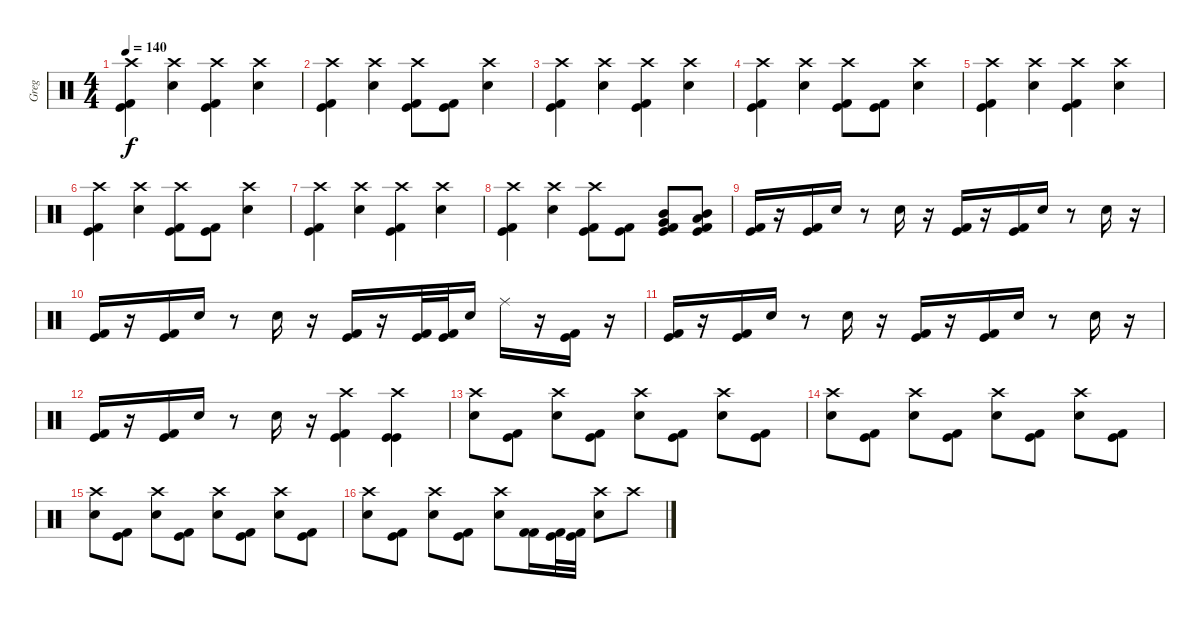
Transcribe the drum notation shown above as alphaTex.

\track ("Greg" "Greg") {instrument percussion}
\staff {score}
\articulation defaults
\ts (4 4)
\tempo 140
\clef neutral
\ks c
("Crash high (hit)" "Kick (hit)" "Kick (hit) 2").4{dy f} ("Crash high (hit)" "Snare (hit) 2").4 ("Crash high (hit)" "Kick (hit)" "Kick (hit) 2").4 ("Crash high (hit)" "Snare (hit) 2").4 |
("Crash high (hit)" "Kick (hit)" "Kick (hit) 2").4 ("Crash high (hit)" "Snare (hit) 2").4 ("Crash high (hit)" "Kick (hit)" "Kick (hit) 2").8 ("Kick (hit)" "Kick (hit) 2").8 ("Crash high (hit)" "Snare (hit) 2").4 |
("Crash high (hit)" "Kick (hit)" "Kick (hit) 2").4 ("Crash high (hit)" "Snare (hit) 2").4 ("Crash high (hit)" "Kick (hit)" "Kick (hit) 2").4 ("Crash high (hit)" "Snare (hit) 2").4 |
("Crash high (hit)" "Kick (hit)" "Kick (hit) 2").4 ("Crash high (hit)" "Snare (hit) 2").4 ("Crash high (hit)" "Kick (hit)" "Kick (hit) 2").8 ("Kick (hit)" "Kick (hit) 2").8 ("Crash high (hit)" "Snare (hit) 2").4 |
("Crash high (hit)" "Kick (hit)" "Kick (hit) 2").4 ("Crash high (hit)" "Snare (hit) 2").4 ("Crash high (hit)" "Kick (hit)" "Kick (hit) 2").4 ("Crash high (hit)" "Snare (hit) 2").4 |
("Crash high (hit)" "Kick (hit)" "Kick (hit) 2").4 ("Crash high (hit)" "Snare (hit) 2").4 ("Crash high (hit)" "Kick (hit)" "Kick (hit) 2").8 ("Kick (hit)" "Kick (hit) 2").8 ("Crash high (hit)" "Snare (hit) 2").4 |
("Crash high (hit)" "Kick (hit)" "Kick (hit) 2").4 ("Crash high (hit)" "Snare (hit) 2").4 ("Crash high (hit)" "Kick (hit)" "Kick (hit) 2").4 ("Crash high (hit)" "Snare (hit) 2").4 |
("Crash high (hit)" "Kick (hit)" "Kick (hit) 2").4 ("Crash high (hit)" "Snare (hit) 2").4 ("Crash high (hit)" "Kick (hit)" "Kick (hit) 2").8 ("Kick (hit)" "Kick (hit) 2").8 ("Very Low Tom (hit)" "Mid Tom (hit)" "Kick (hit)" "Kick (hit) 2").8 ("Low Tom (hit)" "Mid Tom (hit)" "Kick (hit)" "Kick (hit) 2").8 |
("Kick (hit)" "Kick (hit) 2").16 r.16 ("Kick (hit)" "Kick (hit) 2").16 "Snare (hit) 2".16 r.8 "Snare (hit) 2".16 r.16 ("Kick (hit)" "Kick (hit) 2").16 r.16 ("Kick (hit)" "Kick (hit) 2").16 "Snare (hit) 2".16 r.8 "Snare (hit) 2".16 r.16 |
("Kick (hit)" "Kick (hit) 2").16 r.16 ("Kick (hit)" "Kick (hit) 2").16 "Snare (hit) 2".16 r.8 "Snare (hit) 2".16 r.16 ("Kick (hit)" "Kick (hit) 2").16 r.16 ("Kick (hit)" "Kick (hit) 2").32 ("Kick (hit)" "Kick (hit) 2").32 "Snare (hit) 2".16 "Ride (middle)".16 r.16 ("Kick (hit)" "Kick (hit) 2").16 r.16 |
("Kick (hit)" "Kick (hit) 2").16 r.16 ("Kick (hit)" "Kick (hit) 2").16 "Snare (hit) 2".16 r.8 "Snare (hit) 2".16 r.16 ("Kick (hit)" "Kick (hit) 2").16 r.16 ("Kick (hit)" "Kick (hit) 2").16 "Snare (hit) 2".16 r.8 "Snare (hit) 2".16 r.16 |
("Kick (hit)" "Kick (hit) 2").16 r.16 ("Kick (hit)" "Kick (hit) 2").16 "Snare (hit) 2".16 r.8 "Snare (hit) 2".16 r.16 ("Crash high (hit)" "Kick (hit)" "Kick (hit) 2").4 ("Crash high (hit)" "Kick (hit)" "Kick (hit)").4 |
("Crash high (hit)" "Snare (hit) 2").8 ("Kick (hit)" "Kick (hit) 2").8 ("Crash high (hit)" "Snare (hit) 2").8 ("Kick (hit)" "Kick (hit) 2").8 ("Crash high (hit)" "Snare (hit) 2").8 ("Kick (hit)" "Kick (hit) 2").8 ("Crash high (hit)" "Snare (hit) 2").8 ("Kick (hit)" "Kick (hit) 2").8 |
("Crash high (hit)" "Snare (hit) 2").8 ("Kick (hit)" "Kick (hit) 2").8 ("Crash high (hit)" "Snare (hit) 2").8 ("Kick (hit)" "Kick (hit) 2").8 ("Crash high (hit)" "Snare (hit) 2").8 ("Kick (hit)" "Kick (hit) 2").8 ("Crash high (hit)" "Snare (hit) 2").8 ("Kick (hit)" "Kick (hit) 2").8 |
("Crash high (hit)" "Snare (hit) 2").8 ("Kick (hit)" "Kick (hit) 2").8 ("Crash high (hit)" "Snare (hit) 2").8 ("Kick (hit)" "Kick (hit) 2").8 ("Crash high (hit)" "Snare (hit) 2").8 ("Kick (hit)" "Kick (hit) 2").8 ("Crash high (hit)" "Snare (hit) 2").8 ("Kick (hit)" "Kick (hit) 2").8 |
("Crash high (hit)" "Snare (hit) 2").8 ("Kick (hit)" "Kick (hit) 2").8 ("Crash high (hit)" "Snare (hit) 2").8 ("Kick (hit)" "Kick (hit) 2").8 ("Crash high (hit)" "Snare (hit) 2").8 ("Kick (hit) 2" "Kick (hit) 2").16 ("Kick (hit)" "Kick (hit) 2").32 ("Kick (hit)" "Kick (hit) 2").32 ("Crash high (hit)" "Snare (hit) 2").8 "Crash high (hit)".8
